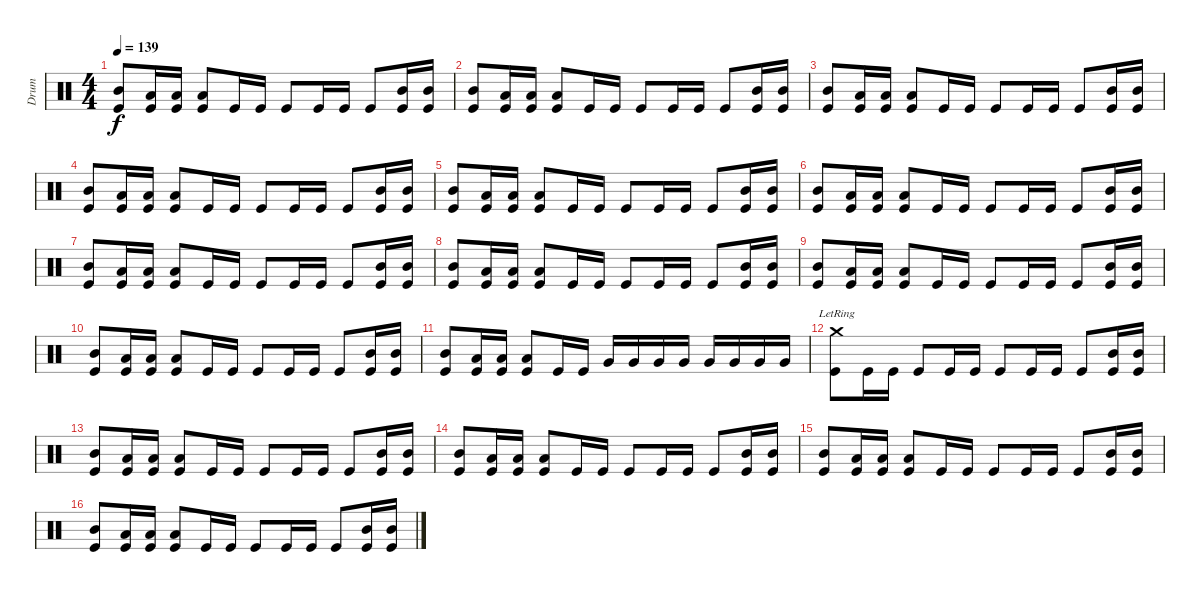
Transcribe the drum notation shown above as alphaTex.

\track ("Drum" "Drum") {instrument percussion}
\staff {score}
\articulation defaults
\ts (4 4)
\tempo 139
\clef neutral
\ks c
("Mid Tom (hit)" "Kick (hit)").8{dy f} ("Low Floor Tom (hit)" "Kick (hit)").16 ("Low Floor Tom (hit)" "Kick (hit)").16 ("Low Floor Tom (hit)" "Kick (hit)").8 "Kick (hit)".16 "Kick (hit)".16 "Kick (hit)".8 "Kick (hit)".16 "Kick (hit)".16 "Kick (hit)".8 ("Mid Tom (hit)" "Kick (hit)").16 ("Mid Tom (hit)" "Kick (hit)").16 |
("Mid Tom (hit)" "Kick (hit)").8 ("Low Floor Tom (hit)" "Kick (hit)").16 ("Low Floor Tom (hit)" "Kick (hit)").16 ("Low Floor Tom (hit)" "Kick (hit)").8 "Kick (hit)".16 "Kick (hit)".16 "Kick (hit)".8 "Kick (hit)".16 "Kick (hit)".16 "Kick (hit)".8 ("Mid Tom (hit)" "Kick (hit)").16 ("Mid Tom (hit)" "Kick (hit)").16 |
("Mid Tom (hit)" "Kick (hit)").8 ("Low Floor Tom (hit)" "Kick (hit)").16 ("Low Floor Tom (hit)" "Kick (hit)").16 ("Low Floor Tom (hit)" "Kick (hit)").8 "Kick (hit)".16 "Kick (hit)".16 "Kick (hit)".8 "Kick (hit)".16 "Kick (hit)".16 "Kick (hit)".8 ("Mid Tom (hit)" "Kick (hit)").16 ("Mid Tom (hit)" "Kick (hit)").16 |
("Mid Tom (hit)" "Kick (hit)").8 ("Low Floor Tom (hit)" "Kick (hit)").16 ("Low Floor Tom (hit)" "Kick (hit)").16 ("Low Floor Tom (hit)" "Kick (hit)").8 "Kick (hit)".16 "Kick (hit)".16 "Kick (hit)".8 "Kick (hit)".16 "Kick (hit)".16 "Kick (hit)".8 ("Mid Tom (hit)" "Kick (hit)").16 ("Mid Tom (hit)" "Kick (hit)").16 |
("Mid Tom (hit)" "Kick (hit)").8 ("Low Floor Tom (hit)" "Kick (hit)").16 ("Low Floor Tom (hit)" "Kick (hit)").16 ("Low Floor Tom (hit)" "Kick (hit)").8 "Kick (hit)".16 "Kick (hit)".16 "Kick (hit)".8 "Kick (hit)".16 "Kick (hit)".16 "Kick (hit)".8 ("Mid Tom (hit)" "Kick (hit)").16 ("Mid Tom (hit)" "Kick (hit)").16 |
("Mid Tom (hit)" "Kick (hit)").8 ("Low Floor Tom (hit)" "Kick (hit)").16 ("Low Floor Tom (hit)" "Kick (hit)").16 ("Low Floor Tom (hit)" "Kick (hit)").8 "Kick (hit)".16 "Kick (hit)".16 "Kick (hit)".8 "Kick (hit)".16 "Kick (hit)".16 "Kick (hit)".8 ("Mid Tom (hit)" "Kick (hit)").16 ("Mid Tom (hit)" "Kick (hit)").16 |
("Mid Tom (hit)" "Kick (hit)").8 ("Low Floor Tom (hit)" "Kick (hit)").16 ("Low Floor Tom (hit)" "Kick (hit)").16 ("Low Floor Tom (hit)" "Kick (hit)").8 "Kick (hit)".16 "Kick (hit)".16 "Kick (hit)".8 "Kick (hit)".16 "Kick (hit)".16 "Kick (hit)".8 ("Mid Tom (hit)" "Kick (hit)").16 ("Mid Tom (hit)" "Kick (hit)").16 |
("Mid Tom (hit)" "Kick (hit)").8 ("Low Floor Tom (hit)" "Kick (hit)").16 ("Low Floor Tom (hit)" "Kick (hit)").16 ("Low Floor Tom (hit)" "Kick (hit)").8 "Kick (hit)".16 "Kick (hit)".16 "Kick (hit)".8 "Kick (hit)".16 "Kick (hit)".16 "Kick (hit)".8 ("Mid Tom (hit)" "Kick (hit)").16 ("Mid Tom (hit)" "Kick (hit)").16 |
("Mid Tom (hit)" "Kick (hit)").8 ("Low Floor Tom (hit)" "Kick (hit)").16 ("Low Floor Tom (hit)" "Kick (hit)").16 ("Low Floor Tom (hit)" "Kick (hit)").8 "Kick (hit)".16 "Kick (hit)".16 "Kick (hit)".8 "Kick (hit)".16 "Kick (hit)".16 "Kick (hit)".8 ("Mid Tom (hit)" "Kick (hit)").16 ("Mid Tom (hit)" "Kick (hit)").16 |
("Mid Tom (hit)" "Kick (hit)").8 ("Low Floor Tom (hit)" "Kick (hit)").16 ("Low Floor Tom (hit)" "Kick (hit)").16 ("Low Floor Tom (hit)" "Kick (hit)").8 "Kick (hit)".16 "Kick (hit)".16 "Kick (hit)".8 "Kick (hit)".16 "Kick (hit)".16 "Kick (hit)".8 ("Mid Tom (hit)" "Kick (hit)").16 ("Mid Tom (hit)" "Kick (hit)").16 |
("Mid Tom (hit)" "Kick (hit)").8 ("Low Floor Tom (hit)" "Kick (hit)").16 ("Low Floor Tom (hit)" "Kick (hit)").16 ("Low Floor Tom (hit)" "Kick (hit)").8 "Kick (hit)".16 "Kick (hit)".16 "Very Low Tom (hit)".16 "Very Low Tom (hit)".16 "Very Low Tom (hit)".16 "Very Low Tom (hit)".16 "Very Low Tom (hit)".16 "Very Low Tom (hit)".16 "Very Low Tom (hit)".16 "Very Low Tom (hit)".16 |
("Crash medium (hit)"{lr} "Kick (hit)").8 "Kick (hit)".16 "Kick (hit)".16 "Kick (hit)".8 "Kick (hit)".16 "Kick (hit)".16 "Kick (hit)".8 "Kick (hit)".16 "Kick (hit)".16 "Kick (hit)".8 ("Mid Tom (hit)" "Kick (hit)").16 ("Mid Tom (hit)" "Kick (hit)").16 |
("Mid Tom (hit)" "Kick (hit)").8 ("Low Floor Tom (hit)" "Kick (hit)").16 ("Low Floor Tom (hit)" "Kick (hit)").16 ("Low Floor Tom (hit)" "Kick (hit)").8 "Kick (hit)".16 "Kick (hit)".16 "Kick (hit)".8 "Kick (hit)".16 "Kick (hit)".16 "Kick (hit)".8 ("Mid Tom (hit)" "Kick (hit)").16 ("Mid Tom (hit)" "Kick (hit)").16 |
("Mid Tom (hit)" "Kick (hit)").8 ("Low Floor Tom (hit)" "Kick (hit)").16 ("Low Floor Tom (hit)" "Kick (hit)").16 ("Low Floor Tom (hit)" "Kick (hit)").8 "Kick (hit)".16 "Kick (hit)".16 "Kick (hit)".8 "Kick (hit)".16 "Kick (hit)".16 "Kick (hit)".8 ("Mid Tom (hit)" "Kick (hit)").16 ("Mid Tom (hit)" "Kick (hit)").16 |
("Mid Tom (hit)" "Kick (hit)").8 ("Low Floor Tom (hit)" "Kick (hit)").16 ("Low Floor Tom (hit)" "Kick (hit)").16 ("Low Floor Tom (hit)" "Kick (hit)").8 "Kick (hit)".16 "Kick (hit)".16 "Kick (hit)".8 "Kick (hit)".16 "Kick (hit)".16 "Kick (hit)".8 ("Mid Tom (hit)" "Kick (hit)").16 ("Mid Tom (hit)" "Kick (hit)").16 |
("Mid Tom (hit)" "Kick (hit)").8 ("Low Floor Tom (hit)" "Kick (hit)").16 ("Low Floor Tom (hit)" "Kick (hit)").16 ("Low Floor Tom (hit)" "Kick (hit)").8 "Kick (hit)".16 "Kick (hit)".16 "Kick (hit)".8 "Kick (hit)".16 "Kick (hit)".16 "Kick (hit)".8 ("Mid Tom (hit)" "Kick (hit)").16 ("Mid Tom (hit)" "Kick (hit)").16
